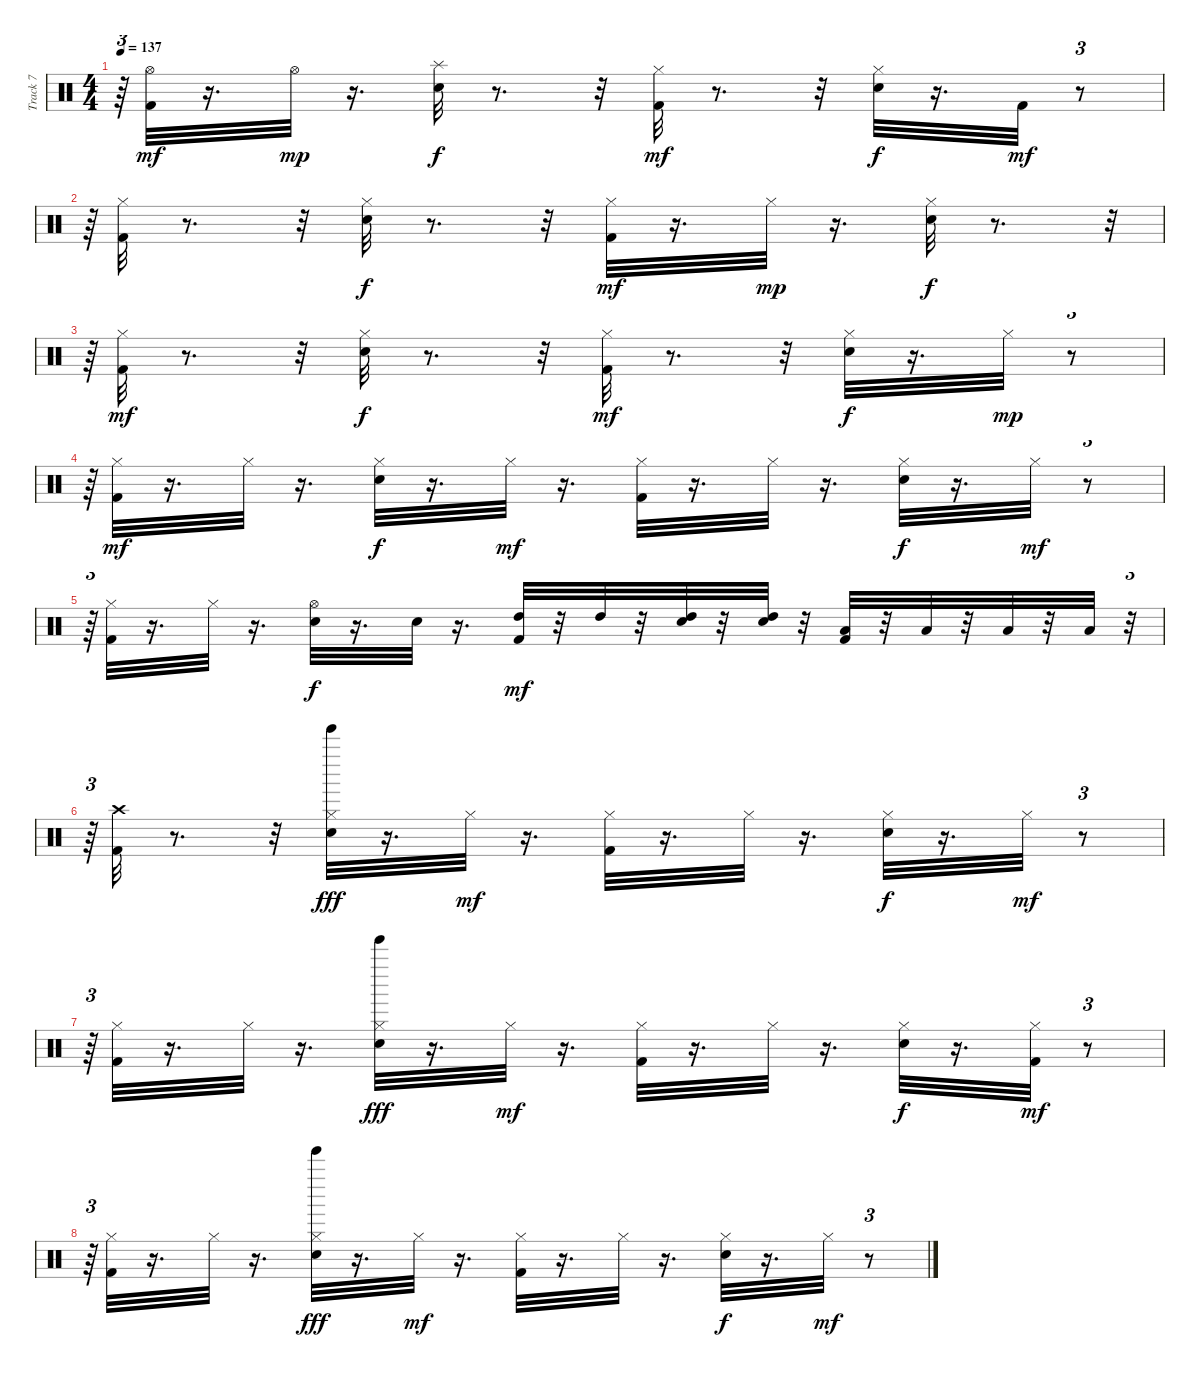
\track ("Track 7" "Track 7") {instrument percussion}
\staff {score}
\articulation defaults
\ts (4 4)
\tempo 137
\clef neutral
\ks c
r.64{tu (3 2) dy f} ("Hi-Hat (open)" "Kick (hit) 2").32{dy mf} r.16{d} "Hi-Hat (open)".32{dy mp} r.16{d} ("Splash (hit)" "Snare (hit) 2").32{dy f} r.8{d} r.32 ("Hi-Hat (closed)" "Kick (hit) 2").32{dy mf} r.8{d} r.32 ("Hi-Hat (closed)" "Snare (hit) 2").32{dy f} r.16{d} "Kick (hit) 2".32{dy mf} r.8{tu (3 2)} |
r.64{tu (3 2)} ("Hi-Hat (closed)" "Kick (hit) 2").32 r.8{d} r.32 ("Hi-Hat (closed)" "Snare (hit) 2").32{dy f} r.8{d} r.32 ("Hi-Hat (closed)" "Kick (hit) 2").32{dy mf} r.16{d} "Hi-Hat (closed)".32{dy mp} r.16{d} ("Hi-Hat (closed)" "Snare (hit) 2").32{dy f} r.8{d} r.32{tu (3 2)} |
r.64{tu (3 2)} ("Kick (hit) 2" "Hi-Hat (closed)").32{dy mf} r.8{d} r.32 ("Snare (hit) 2" "Hi-Hat (closed)").32{dy f} r.8{d} r.32 ("Kick (hit) 2" "Hi-Hat (closed)").32{dy mf} r.8{d} r.32 ("Snare (hit) 2" "Hi-Hat (closed)").32{dy f} r.16{d} "Hi-Hat (closed)".32{dy mp} r.8{tu (3 2)} |
r.64{tu (3 2)} ("Kick (hit) 2" "Hi-Hat (closed)").32{dy mf} r.16{d} "Hi-Hat (closed)".32 r.16{d} ("Snare (hit) 2" "Hi-Hat (closed)").32{dy f} r.16{d} "Hi-Hat (closed)".32{dy mf} r.16{d} ("Kick (hit) 2" "Hi-Hat (closed)").32 r.16{d} "Hi-Hat (closed)".32 r.16{d} ("Snare (hit) 2" "Hi-Hat (closed)").32{dy f} r.16{d} "Hi-Hat (closed)".32{dy mf} r.8{tu (3 2)} |
r.64{tu (3 2)} ("Kick (hit) 2" "Hi-Hat (closed)").32 r.16{d} "Hi-Hat (closed)".32 r.16{d} ("Hi-Hat (open)" "Snare (hit) 2").32{dy f} r.16{d} "Snare (hit) 2".32 r.16{d} ("High Tom (hit)" "Kick (hit) 2").32{dy mf} r.32 "High Tom (hit)".32 r.32 ("High Tom (hit)" "Snare (hit) 2").32 r.32 ("High Tom (hit)" "Snare (hit) 2").32 r.32 ("Kick (hit) 2" "Low Tom (hit)").32 r.32 "Low Tom (hit)".32 r.32 "Low Floor Tom (hit)".32 r.32 "Low Floor Tom (hit)".32 r.32{tu (3 2)} |
r.64{tu (3 2)} ("Crash high (hit)" "Kick (hit) 2").32 r.8{d} r.32 ("Tinkle Bell (hit)" "Hi-Hat (closed)" "Snare (hit) 2").32{dy fff} r.16{d} "Hi-Hat (closed)".32{dy mf} r.16{d} ("Hi-Hat (closed)" "Kick (hit) 2").32 r.16{d} "Hi-Hat (closed)".32 r.16{d} ("Hi-Hat (closed)" "Snare (hit) 2").32{dy f} r.16{d} "Hi-Hat (closed)".32{dy mf} r.8{tu (3 2)} |
r.64{tu (3 2)} ("Hi-Hat (closed)" "Kick (hit) 2").32 r.16{d} "Hi-Hat (closed)".32 r.16{d} ("Tinkle Bell (hit)" "Hi-Hat (closed)" "Snare (hit) 2").32{dy fff} r.16{d} "Hi-Hat (closed)".32{dy mf} r.16{d} ("Hi-Hat (closed)" "Kick (hit) 2").32 r.16{d} "Hi-Hat (closed)".32 r.16{d} ("Hi-Hat (closed)" "Snare (hit) 2").32{dy f} r.16{d} ("Hi-Hat (closed)" "Kick (hit) 2").32{dy mf} r.8{tu (3 2)} |
r.64{tu (3 2)} ("Kick (hit) 2" "Hi-Hat (closed)").32 r.16{d} "Hi-Hat (closed)".32 r.16{d} ("Tinkle Bell (hit)" "Snare (hit) 2" "Hi-Hat (closed)").32{dy fff} r.16{d} "Hi-Hat (closed)".32{dy mf} r.16{d} ("Kick (hit) 2" "Hi-Hat (closed)").32 r.16{d} "Hi-Hat (closed)".32 r.16{d} ("Snare (hit) 2" "Hi-Hat (closed)").32{dy f} r.16{d} "Hi-Hat (closed)".32{dy mf} r.8{tu (3 2)}
